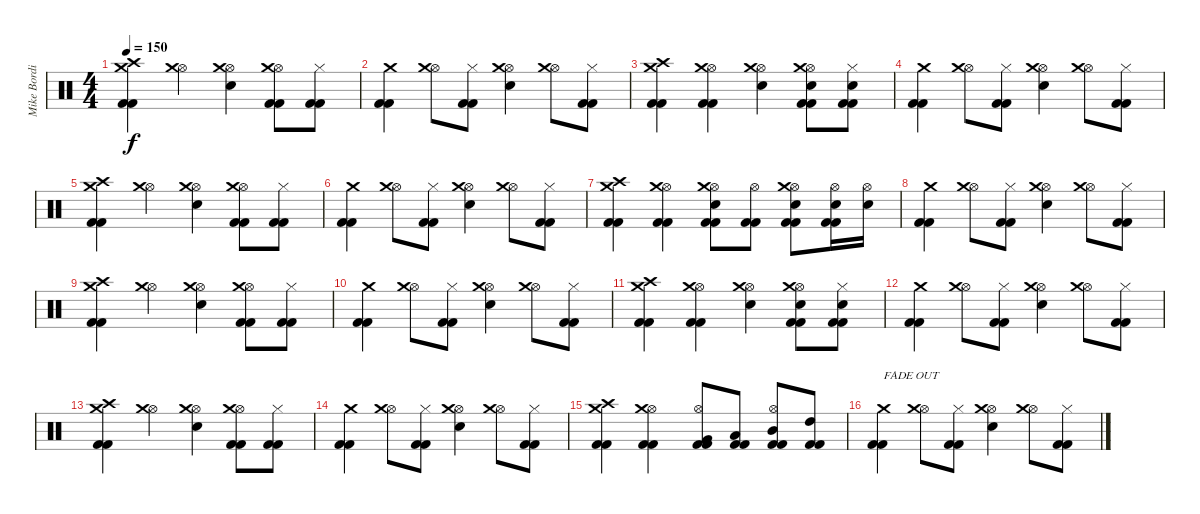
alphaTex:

\track ("Mike Bordin" "Mike Bordi") {instrument percussion}
\staff {score}
\articulation defaults
\ts (4 4)
\tempo 150
\clef neutral
\ks c
("Crash high (hit)" "Crash medium (hit)" "Kick (hit) 2" "Kick (hit) 2").4{dy f} ("Hi-Hat (open)" "Crash medium (hit)").4 ("Hi-Hat (open)" "Crash medium (hit)" "Electric Snare (hit)").4 ("Hi-Hat (open)" "Crash medium (hit)" "Kick (hit) 2" "Kick (hit) 2").8 ("Hi-Hat (closed)" "Kick (hit) 2" "Kick (hit) 2").8 |
("Crash medium (hit)" "Kick (hit) 2" "Kick (hit) 2").4 ("Hi-Hat (open)" "Crash medium (hit)").8 ("Hi-Hat (closed)" "Kick (hit) 2" "Kick (hit) 2").8 ("Hi-Hat (open)" "Crash medium (hit)" "Electric Snare (hit)").4 ("Hi-Hat (open)" "Crash medium (hit)").8 ("Hi-Hat (closed)" "Kick (hit) 2" "Kick (hit) 2").8 |
("Crash high (hit)" "Crash medium (hit)" "Kick (hit) 2" "Kick (hit) 2").4 ("Hi-Hat (open)" "Crash medium (hit)" "Kick (hit) 2" "Kick (hit) 2").4 ("Hi-Hat (open)" "Crash medium (hit)" "Electric Snare (hit)").4 ("Hi-Hat (open)" "Crash medium (hit)" "Electric Snare (hit)" "Kick (hit) 2" "Kick (hit) 2").8 ("Hi-Hat (closed)" "Electric Snare (hit)" "Kick (hit) 2" "Kick (hit) 2").8 |
("Crash medium (hit)" "Kick (hit) 2" "Kick (hit) 2").4 ("Hi-Hat (open)" "Crash medium (hit)").8 ("Hi-Hat (closed)" "Kick (hit) 2" "Kick (hit) 2").8 ("Hi-Hat (open)" "Crash medium (hit)" "Electric Snare (hit)").4 ("Hi-Hat (open)" "Crash medium (hit)").8 ("Hi-Hat (closed)" "Kick (hit) 2" "Kick (hit) 2").8 |
("Crash high (hit)" "Crash medium (hit)" "Kick (hit) 2" "Kick (hit) 2").4 ("Hi-Hat (open)" "Crash medium (hit)").4 ("Hi-Hat (open)" "Crash medium (hit)" "Electric Snare (hit)").4 ("Hi-Hat (open)" "Crash medium (hit)" "Kick (hit) 2" "Kick (hit) 2").8 ("Hi-Hat (closed)" "Kick (hit) 2" "Kick (hit) 2").8 |
("Crash medium (hit)" "Kick (hit) 2" "Kick (hit) 2").4 ("Hi-Hat (open)" "Crash medium (hit)").8 ("Hi-Hat (closed)" "Kick (hit) 2" "Kick (hit) 2").8 ("Hi-Hat (open)" "Crash medium (hit)" "Electric Snare (hit)").4 ("Hi-Hat (open)" "Crash medium (hit)").8 ("Hi-Hat (closed)" "Kick (hit) 2" "Kick (hit) 2").8 |
("Crash high (hit)" "Crash medium (hit)" "Kick (hit) 2" "Kick (hit) 2").4 ("Hi-Hat (open)" "Crash medium (hit)" "Kick (hit) 2" "Kick (hit) 2").4 ("Hi-Hat (open)" "Crash medium (hit)" "Electric Snare (hit)" "Kick (hit) 2" "Kick (hit) 2").8 ("Hi-Hat (open)" "Kick (hit) 2" "Kick (hit) 2").8 ("Hi-Hat (open)" "Crash medium (hit)" "Electric Snare (hit)" "Kick (hit) 2" "Kick (hit) 2").8 ("Hi-Hat (open)" "Electric Snare (hit)" "Kick (hit) 2" "Kick (hit) 2").16 ("Hi-Hat (open)" "Electric Snare (hit)").16 |
("Crash medium (hit)" "Kick (hit) 2" "Kick (hit) 2").4 ("Hi-Hat (open)" "Crash medium (hit)").8 ("Hi-Hat (closed)" "Kick (hit) 2" "Kick (hit) 2").8 ("Hi-Hat (open)" "Crash medium (hit)" "Electric Snare (hit)").4 ("Hi-Hat (open)" "Crash medium (hit)").8 ("Hi-Hat (closed)" "Kick (hit) 2" "Kick (hit) 2").8 |
("Crash high (hit)" "Crash medium (hit)" "Kick (hit) 2" "Kick (hit) 2").4 ("Hi-Hat (open)" "Crash medium (hit)").4 ("Hi-Hat (open)" "Crash medium (hit)" "Electric Snare (hit)").4 ("Hi-Hat (open)" "Crash medium (hit)" "Kick (hit) 2" "Kick (hit) 2").8 ("Hi-Hat (closed)" "Kick (hit) 2" "Kick (hit) 2").8 |
("Crash medium (hit)" "Kick (hit) 2" "Kick (hit) 2").4 ("Hi-Hat (open)" "Crash medium (hit)").8 ("Hi-Hat (closed)" "Kick (hit) 2" "Kick (hit) 2").8 ("Hi-Hat (open)" "Crash medium (hit)" "Electric Snare (hit)").4 ("Hi-Hat (open)" "Crash medium (hit)").8 ("Hi-Hat (closed)" "Kick (hit) 2" "Kick (hit) 2").8 |
("Crash high (hit)" "Crash medium (hit)" "Kick (hit) 2" "Kick (hit) 2").4 ("Hi-Hat (open)" "Crash medium (hit)" "Kick (hit) 2" "Kick (hit) 2").4 ("Hi-Hat (open)" "Crash medium (hit)" "Electric Snare (hit)").4 ("Hi-Hat (open)" "Crash medium (hit)" "Electric Snare (hit)" "Kick (hit) 2" "Kick (hit) 2").8 ("Hi-Hat (closed)" "Electric Snare (hit)" "Kick (hit) 2" "Kick (hit) 2").8 |
("Crash medium (hit)" "Kick (hit) 2" "Kick (hit) 2").4 ("Hi-Hat (open)" "Crash medium (hit)").8 ("Hi-Hat (closed)" "Kick (hit) 2" "Kick (hit) 2").8 ("Hi-Hat (open)" "Crash medium (hit)" "Electric Snare (hit)").4 ("Hi-Hat (open)" "Crash medium (hit)").8 ("Hi-Hat (closed)" "Kick (hit) 2" "Kick (hit) 2").8 |
("Crash high (hit)" "Crash medium (hit)" "Kick (hit) 2" "Kick (hit) 2").4 ("Hi-Hat (open)" "Crash medium (hit)").4 ("Hi-Hat (open)" "Crash medium (hit)" "Electric Snare (hit)").4 ("Hi-Hat (open)" "Crash medium (hit)" "Kick (hit) 2" "Kick (hit) 2").8 ("Hi-Hat (closed)" "Kick (hit) 2" "Kick (hit) 2").8 |
("Crash medium (hit)" "Kick (hit) 2" "Kick (hit) 2").4 ("Hi-Hat (open)" "Crash medium (hit)").8 ("Hi-Hat (closed)" "Kick (hit) 2" "Kick (hit) 2").8 ("Hi-Hat (open)" "Crash medium (hit)" "Electric Snare (hit)").4 ("Hi-Hat (open)" "Crash medium (hit)").8 ("Hi-Hat (closed)" "Kick (hit) 2" "Kick (hit) 2").8 |
("Crash high (hit)" "Crash medium (hit)" "Kick (hit) 2" "Kick (hit) 2").4 ("Hi-Hat (open)" "Crash medium (hit)" "Kick (hit) 2" "Kick (hit) 2").4 ("Hi-Hat (open)" "Very Low Tom (hit)" "Kick (hit) 2" "Kick (hit) 2").8 ("Low Tom (hit)" "Kick (hit) 2" "Kick (hit) 2").8 ("Hi-Hat (open)" "Mid Tom (hit)" "Kick (hit) 2" "Kick (hit) 2").8 ("High Tom (hit)" "Kick (hit) 2" "Kick (hit) 2").8 |
("Crash medium (hit)" "Kick (hit) 2" "Kick (hit) 2").4{txt "FADE OUT"} ("Hi-Hat (open)" "Crash medium (hit)").8 ("Hi-Hat (closed)" "Kick (hit) 2" "Kick (hit) 2").8 ("Hi-Hat (open)" "Crash medium (hit)" "Electric Snare (hit)").4 ("Hi-Hat (open)" "Crash medium (hit)").8 ("Hi-Hat (closed)" "Kick (hit) 2" "Kick (hit) 2").8
